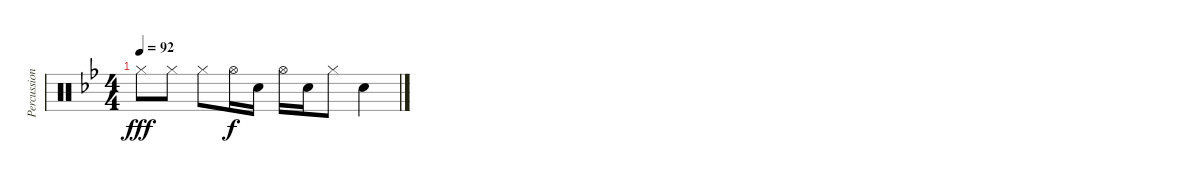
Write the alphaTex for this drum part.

\track ("Percussion" "Percussion") {instrument percussion}
\staff {score}
\articulation defaults
\ts (4 4)
\tempo 92
\clef neutral
\ks bb "Hi-Hat (closed)".8{dy fff volume 0} "Hi-Hat (closed)".8 "Hi-Hat (closed)".8 "Hi-Hat (open)".16{dy f} "Snare (hit) 2".16 "Hi-Hat (open)".16 "Snare (hit) 2".16 "Hi-Hat (closed)".8 "Snare (hit) 2".4
